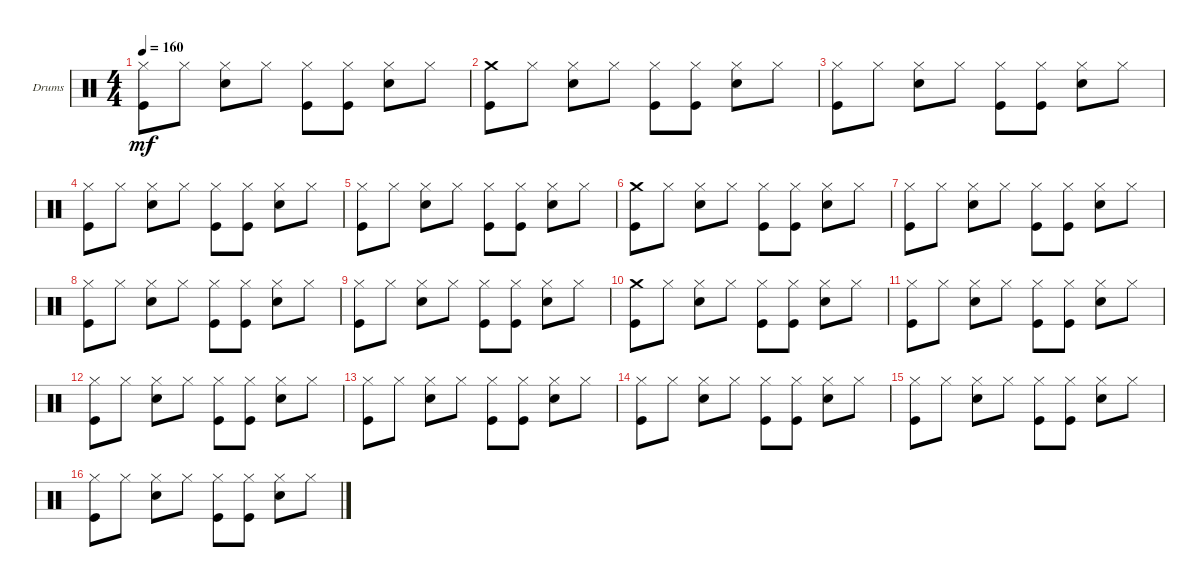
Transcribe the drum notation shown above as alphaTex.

\defaultSystemsLayout 4
\bracketExtendMode groupsimilarinstruments
\firstSystemTrackNameOrientation horizontal
\otherSystemsTrackNameOrientation horizontal
\track ("Drumkit" "Drums") {instrument percussion}
\staff {score}
\articulation defaults
\ts (4 4)
\tempo 160
\clef neutral
\ks c
("Kick (hit)" "Hi-Hat (closed)").8{dy mf} "Hi-Hat (closed)".8 ("Snare (hit) 2" "Hi-Hat (closed)").8 "Hi-Hat (closed)".8 ("Hi-Hat (closed)" "Kick (hit)").8 ("Kick (hit)" "Hi-Hat (closed)").8 ("Snare (hit) 2" "Hi-Hat (closed)").8 "Hi-Hat (closed)".8 |
("Kick (hit)" "Crash medium (hit)").8 "Hi-Hat (closed)".8 ("Snare (hit) 2" "Hi-Hat (closed)").8 "Hi-Hat (closed)".8 ("Hi-Hat (closed)" "Kick (hit)").8 ("Kick (hit)" "Hi-Hat (closed)").8 ("Snare (hit) 2" "Hi-Hat (closed)").8 "Hi-Hat (closed)".8 |
("Kick (hit)" "Hi-Hat (closed)").8 "Hi-Hat (closed)".8 ("Snare (hit) 2" "Hi-Hat (closed)").8 "Hi-Hat (closed)".8 ("Hi-Hat (closed)" "Kick (hit)").8 ("Kick (hit)" "Hi-Hat (closed)").8 ("Snare (hit) 2" "Hi-Hat (closed)").8 "Hi-Hat (closed)".8 |
("Kick (hit)" "Hi-Hat (closed)").8 "Hi-Hat (closed)".8 ("Snare (hit) 2" "Hi-Hat (closed)").8 "Hi-Hat (closed)".8 ("Hi-Hat (closed)" "Kick (hit)").8 ("Kick (hit)" "Hi-Hat (closed)").8 ("Snare (hit) 2" "Hi-Hat (closed)").8 "Hi-Hat (closed)".8 |
("Kick (hit)" "Hi-Hat (closed)").8 "Hi-Hat (closed)".8 ("Snare (hit) 2" "Hi-Hat (closed)").8 "Hi-Hat (closed)".8 ("Hi-Hat (closed)" "Kick (hit)").8 ("Kick (hit)" "Hi-Hat (closed)").8 ("Snare (hit) 2" "Hi-Hat (closed)").8 "Hi-Hat (closed)".8 |
("Kick (hit)" "Crash medium (hit)").8 "Hi-Hat (closed)".8 ("Snare (hit) 2" "Hi-Hat (closed)").8 "Hi-Hat (closed)".8 ("Hi-Hat (closed)" "Kick (hit)").8 ("Kick (hit)" "Hi-Hat (closed)").8 ("Snare (hit) 2" "Hi-Hat (closed)").8 "Hi-Hat (closed)".8 |
("Kick (hit)" "Hi-Hat (closed)").8 "Hi-Hat (closed)".8 ("Snare (hit) 2" "Hi-Hat (closed)").8 "Hi-Hat (closed)".8 ("Hi-Hat (closed)" "Kick (hit)").8 ("Kick (hit)" "Hi-Hat (closed)").8 ("Snare (hit) 2" "Hi-Hat (closed)").8 "Hi-Hat (closed)".8 |
("Kick (hit)" "Hi-Hat (closed)").8 "Hi-Hat (closed)".8 ("Snare (hit) 2" "Hi-Hat (closed)").8 "Hi-Hat (closed)".8 ("Hi-Hat (closed)" "Kick (hit)").8 ("Kick (hit)" "Hi-Hat (closed)").8 ("Snare (hit) 2" "Hi-Hat (closed)").8 "Hi-Hat (closed)".8 |
("Kick (hit)" "Hi-Hat (closed)").8 "Hi-Hat (closed)".8 ("Snare (hit) 2" "Hi-Hat (closed)").8 "Hi-Hat (closed)".8 ("Hi-Hat (closed)" "Kick (hit)").8 ("Kick (hit)" "Hi-Hat (closed)").8 ("Snare (hit) 2" "Hi-Hat (closed)").8 "Hi-Hat (closed)".8 |
("Kick (hit)" "Crash medium (hit)").8 "Hi-Hat (closed)".8 ("Snare (hit) 2" "Hi-Hat (closed)").8 "Hi-Hat (closed)".8 ("Hi-Hat (closed)" "Kick (hit)").8 ("Kick (hit)" "Hi-Hat (closed)").8 ("Snare (hit) 2" "Hi-Hat (closed)").8 "Hi-Hat (closed)".8 |
("Kick (hit)" "Hi-Hat (closed)").8 "Hi-Hat (closed)".8 ("Snare (hit) 2" "Hi-Hat (closed)").8 "Hi-Hat (closed)".8 ("Hi-Hat (closed)" "Kick (hit)").8 ("Kick (hit)" "Hi-Hat (closed)").8 ("Snare (hit) 2" "Hi-Hat (closed)").8 "Hi-Hat (closed)".8 |
("Kick (hit)" "Hi-Hat (closed)").8 "Hi-Hat (closed)".8 ("Snare (hit) 2" "Hi-Hat (closed)").8 "Hi-Hat (closed)".8 ("Hi-Hat (closed)" "Kick (hit)").8 ("Kick (hit)" "Hi-Hat (closed)").8 ("Snare (hit) 2" "Hi-Hat (closed)").8 "Hi-Hat (closed)".8 |
("Kick (hit)" "Hi-Hat (closed)").8 "Hi-Hat (closed)".8 ("Snare (hit) 2" "Hi-Hat (closed)").8 "Hi-Hat (closed)".8 ("Hi-Hat (closed)" "Kick (hit)").8 ("Kick (hit)" "Hi-Hat (closed)").8 ("Snare (hit) 2" "Hi-Hat (closed)").8 "Hi-Hat (closed)".8 |
("Kick (hit)" "Hi-Hat (closed)").8 "Hi-Hat (closed)".8 ("Snare (hit) 2" "Hi-Hat (closed)").8 "Hi-Hat (closed)".8 ("Hi-Hat (closed)" "Kick (hit)").8 ("Kick (hit)" "Hi-Hat (closed)").8 ("Snare (hit) 2" "Hi-Hat (closed)").8 "Hi-Hat (closed)".8 |
("Kick (hit)" "Hi-Hat (closed)").8 "Hi-Hat (closed)".8 ("Snare (hit) 2" "Hi-Hat (closed)").8 "Hi-Hat (closed)".8 ("Hi-Hat (closed)" "Kick (hit)").8 ("Kick (hit)" "Hi-Hat (closed)").8 ("Snare (hit) 2" "Hi-Hat (closed)").8 "Hi-Hat (closed)".8 |
("Kick (hit)" "Hi-Hat (closed)").8 "Hi-Hat (closed)".8 ("Snare (hit) 2" "Hi-Hat (closed)").8 "Hi-Hat (closed)".8 ("Hi-Hat (closed)" "Kick (hit)").8 ("Kick (hit)" "Hi-Hat (closed)").8 ("Snare (hit) 2" "Hi-Hat (closed)").8 "Hi-Hat (closed)".8
